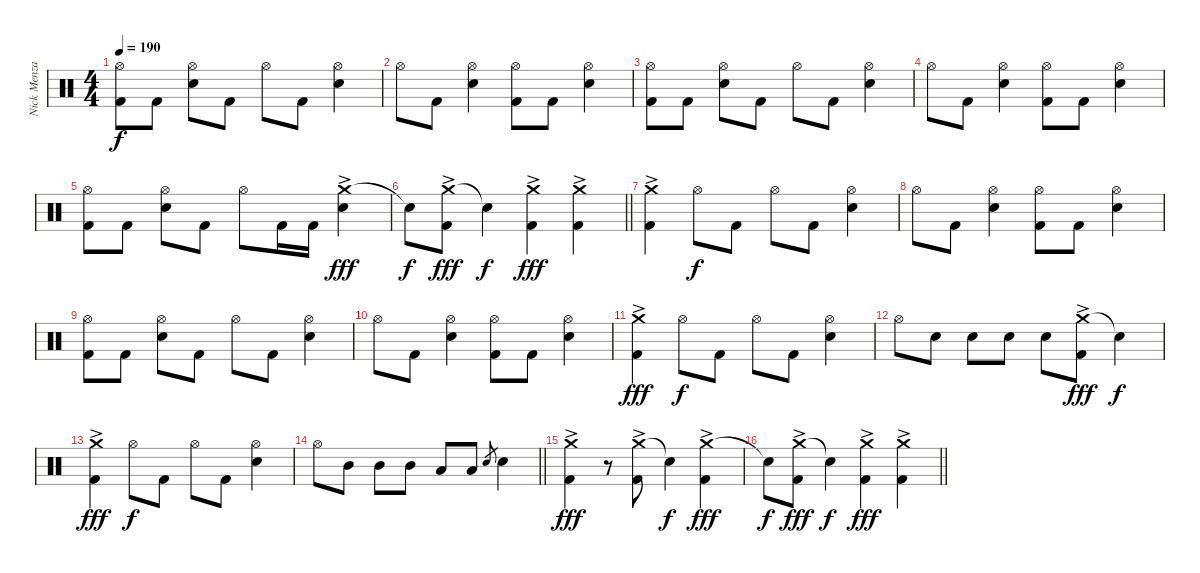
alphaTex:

\track ("Nick Menza" "Nick Menza") {instrument percussion}
\staff {score}
\articulation defaults
\ts (4 4)
\tempo 190
\clef neutral
\ks c
("Hi-Hat (open)" "Kick (hit) 2").8{dy f} "Kick (hit) 2".8 ("Hi-Hat (open)" "Snare (hit) 2").8 "Kick (hit) 2".8 "Hi-Hat (open)".8 "Kick (hit) 2".8 ("Hi-Hat (open)" "Snare (hit) 2").4 |
"Hi-Hat (open)".8 "Kick (hit) 2".8 ("Hi-Hat (open)" "Snare (hit) 2").4 ("Hi-Hat (open)" "Kick (hit) 2").8 "Kick (hit) 2".8 ("Hi-Hat (open)" "Snare (hit) 2").4 |
("Hi-Hat (open)" "Kick (hit) 2").8 "Kick (hit) 2".8 ("Hi-Hat (open)" "Snare (hit) 2").8 "Kick (hit) 2".8 "Hi-Hat (open)".8 "Kick (hit) 2".8 ("Hi-Hat (open)" "Snare (hit) 2").4 |
"Hi-Hat (open)".8 "Kick (hit) 2".8 ("Hi-Hat (open)" "Snare (hit) 2").4 ("Hi-Hat (open)" "Kick (hit) 2").8 "Kick (hit) 2".8 ("Hi-Hat (open)" "Snare (hit) 2").4 |
("Hi-Hat (open)" "Kick (hit) 2").8 "Kick (hit) 2".8 ("Hi-Hat (open)" "Snare (hit) 2").8 "Kick (hit) 2".8 "Hi-Hat (open)".8 "Kick (hit) 2".16 "Kick (hit) 2".16 ("Crash medium (hit)"{ac} "Snare (hit) 2").4{dy fff} |
\barLineRight lightlight "Snare (hit)"{t}.8{dy f}
("Crash medium (hit)"{ac} "Kick (hit) 2").8{dy fff} "Snare (hit)"{t}.4{dy f} ("Crash medium (hit)"{ac} "Kick (hit) 2").4{dy fff} ("Crash medium (hit)"{ac} "Kick (hit) 2").4 |
("Crash medium (hit)"{ac} "Kick (hit) 2").4 "Hi-Hat (open)".8{dy f} "Kick (hit) 2".8 "Hi-Hat (open)".8 "Kick (hit) 2".8 ("Hi-Hat (open)" "Snare (hit) 2").4 |
"Hi-Hat (open)".8 "Kick (hit) 2".8 ("Hi-Hat (open)" "Snare (hit) 2").4 ("Hi-Hat (open)" "Kick (hit) 2").8 "Kick (hit) 2".8 ("Hi-Hat (open)" "Snare (hit) 2").4 |
("Hi-Hat (open)" "Kick (hit) 2").8 "Kick (hit) 2".8 ("Hi-Hat (open)" "Snare (hit) 2").8 "Kick (hit) 2".8 "Hi-Hat (open)".8 "Kick (hit) 2".8 ("Hi-Hat (open)" "Snare (hit) 2").4 |
"Hi-Hat (open)".8 "Kick (hit) 2".8 ("Hi-Hat (open)" "Snare (hit) 2").4 ("Hi-Hat (open)" "Kick (hit) 2").8 "Kick (hit) 2".8 ("Hi-Hat (open)" "Snare (hit) 2").4 |
("Crash medium (hit)"{ac} "Kick (hit) 2").4{dy fff} "Hi-Hat (open)".8{dy f} "Kick (hit) 2".8 "Hi-Hat (open)".8 "Kick (hit) 2".8 ("Hi-Hat (open)" "Snare (hit) 2").4 |
"Hi-Hat (open)".8 "Snare (hit) 2".8 "Snare (hit) 2".8 "Snare (hit) 2".8 "Snare (hit) 2".8 ("Crash medium (hit)"{ac} "Kick (hit) 2").8{dy fff} "Snare (hit)"{t}.4{dy f} |
("Crash medium (hit)"{ac} "Kick (hit) 2").4{dy fff} "Hi-Hat (open)".8{dy f} "Kick (hit) 2".8 "Hi-Hat (open)".8 "Kick (hit) 2".8 ("Hi-Hat (open)" "Snare (hit) 2").4 |
\barLineRight lightlight "Hi-Hat (open)".8 "Mid Tom (hit)".8 "Mid Tom (hit)".8 "Mid Tom (hit)".8 "Low Tom (hit)".8 "Low Tom (hit)".8 "Snare (hit) 2".8{gr} "Snare (hit) 2".4
|
("Crash medium (hit)"{ac} "Kick (hit) 2").4{dy fff} r.8 ("Crash medium (hit)"{ac} "Kick (hit) 2").8 "Snare (hit)"{t}.4{dy f} ("Crash medium (hit)"{ac} "Kick (hit) 2").4{dy fff} |
\barLineRight lightlight "Snare (hit)"{t}.8{dy f}
("Crash medium (hit)"{ac} "Kick (hit) 2").8{dy fff} "Snare (hit)"{t}.4{dy f} ("Crash medium (hit)"{ac} "Kick (hit) 2").4{dy fff} ("Crash medium (hit)"{ac} "Kick (hit) 2").4
